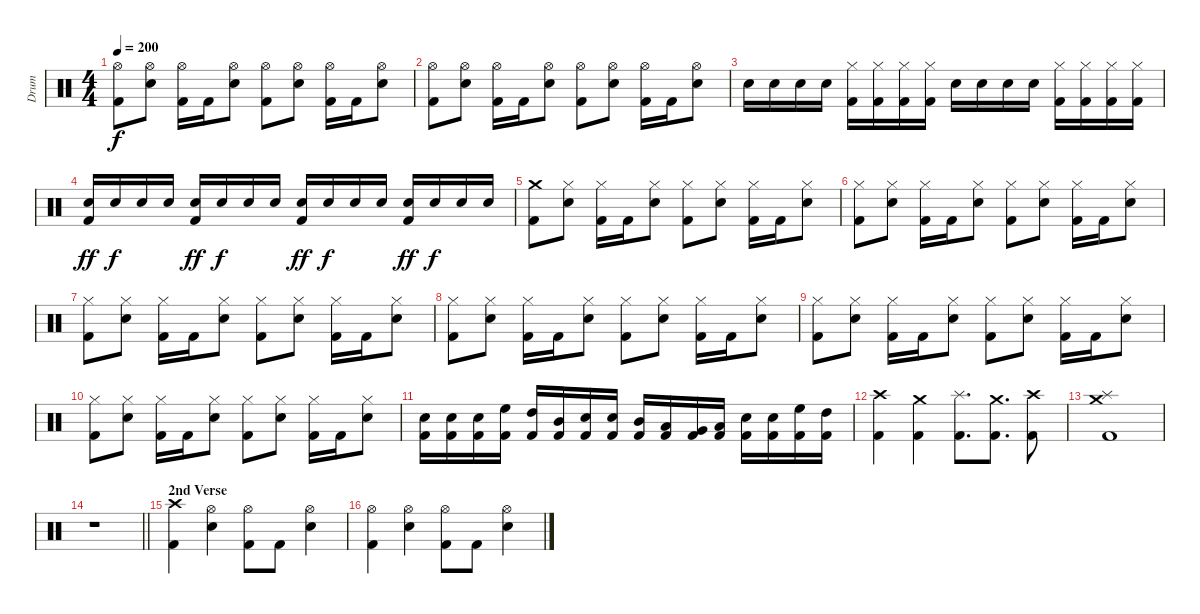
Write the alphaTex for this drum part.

\track ("Drum" "Drum") {instrument percussion}
\staff {score}
\articulation defaults
\ts (4 4)
\tempo 200
\clef neutral
\ks c
("Kick (hit) 2" "Hi-Hat (open)").8{dy f} ("Snare (hit) 2" "Hi-Hat (open)").8 ("Kick (hit) 2" "Hi-Hat (open)").16 "Kick (hit) 2".16 ("Snare (hit) 2" "Hi-Hat (open)").8 ("Kick (hit) 2" "Hi-Hat (open)").8 ("Snare (hit) 2" "Hi-Hat (open)").8 ("Kick (hit) 2" "Hi-Hat (open)").16 "Kick (hit) 2".16 ("Snare (hit) 2" "Hi-Hat (open)").8 |
("Kick (hit) 2" "Hi-Hat (open)").8 ("Snare (hit) 2" "Hi-Hat (open)").8 ("Kick (hit) 2" "Hi-Hat (open)").16 "Kick (hit) 2".16 ("Snare (hit) 2" "Hi-Hat (open)").8 ("Kick (hit) 2" "Hi-Hat (open)").8 ("Snare (hit) 2" "Hi-Hat (open)").8 ("Kick (hit) 2" "Hi-Hat (open)").16 "Kick (hit) 2".16 ("Snare (hit) 2" "Hi-Hat (open)").8 |
"Snare (hit) 2".16 "Snare (hit) 2".16 "Snare (hit) 2".16 "Snare (hit) 2".16 ("Kick (hit) 2" "Hi-Hat (closed)").16 ("Kick (hit) 2" "Hi-Hat (closed)").16 ("Kick (hit) 2" "Hi-Hat (closed)").16 ("Kick (hit) 2" "Hi-Hat (closed)").16 "Snare (hit) 2".16 "Snare (hit) 2".16 "Snare (hit) 2".16 "Snare (hit) 2".16 ("Kick (hit) 2" "Hi-Hat (closed)").16 ("Kick (hit) 2" "Hi-Hat (closed)").16 ("Kick (hit) 2" "Hi-Hat (closed)").16 ("Kick (hit) 2" "Hi-Hat (closed)").16 |
("Kick (hit) 2" "Snare (hit) 2").16{dy ff} "Snare (hit) 2".16{dy f} "Snare (hit) 2".16 "Snare (hit) 2".16 ("Kick (hit) 2" "Snare (hit) 2").16{dy ff} "Snare (hit) 2".16{dy f} "Snare (hit) 2".16 "Snare (hit) 2".16 ("Kick (hit) 2" "Snare (hit) 2").16{dy ff} "Snare (hit) 2".16{dy f} "Snare (hit) 2".16 "Snare (hit) 2".16 ("Kick (hit) 2" "Snare (hit) 2").16{dy ff} "Snare (hit) 2".16{dy f} "Snare (hit) 2".16 "Snare (hit) 2".16 |
("Kick (hit) 2" "Crash medium (hit)").8 ("Snare (hit) 2" "Hi-Hat (closed)").8 ("Kick (hit) 2" "Hi-Hat (closed)").16 "Kick (hit) 2".16 ("Snare (hit) 2" "Hi-Hat (closed)").8 ("Kick (hit) 2" "Hi-Hat (closed)").8 ("Snare (hit) 2" "Hi-Hat (closed)").8 ("Kick (hit) 2" "Hi-Hat (closed)").16 "Kick (hit) 2".16 ("Snare (hit) 2" "Hi-Hat (closed)").8 |
("Kick (hit) 2" "Hi-Hat (closed)").8 ("Snare (hit) 2" "Hi-Hat (closed)").8 ("Kick (hit) 2" "Hi-Hat (closed)").16 "Kick (hit) 2".16 ("Snare (hit) 2" "Hi-Hat (closed)").8 ("Kick (hit) 2" "Hi-Hat (closed)").8 ("Snare (hit) 2" "Hi-Hat (closed)").8 ("Kick (hit) 2" "Hi-Hat (closed)").16 "Kick (hit) 2".16 ("Snare (hit) 2" "Hi-Hat (closed)").8 |
("Kick (hit) 2" "Hi-Hat (closed)").8 ("Snare (hit) 2" "Hi-Hat (closed)").8 ("Kick (hit) 2" "Hi-Hat (closed)").16 "Kick (hit) 2".16 ("Snare (hit) 2" "Hi-Hat (closed)").8 ("Kick (hit) 2" "Hi-Hat (closed)").8 ("Snare (hit) 2" "Hi-Hat (closed)").8 ("Kick (hit) 2" "Hi-Hat (closed)").16 "Kick (hit) 2".16 ("Snare (hit) 2" "Hi-Hat (closed)").8 |
("Kick (hit) 2" "Hi-Hat (closed)").8 ("Snare (hit) 2" "Hi-Hat (closed)").8 ("Kick (hit) 2" "Hi-Hat (closed)").16 "Kick (hit) 2".16 ("Snare (hit) 2" "Hi-Hat (closed)").8 ("Kick (hit) 2" "Hi-Hat (closed)").8 ("Snare (hit) 2" "Hi-Hat (closed)").8 ("Kick (hit) 2" "Hi-Hat (closed)").16 "Kick (hit) 2".16 ("Snare (hit) 2" "Hi-Hat (closed)").8 |
("Kick (hit) 2" "Hi-Hat (closed)").8 ("Snare (hit) 2" "Hi-Hat (closed)").8 ("Kick (hit) 2" "Hi-Hat (closed)").16 "Kick (hit) 2".16 ("Snare (hit) 2" "Hi-Hat (closed)").8 ("Kick (hit) 2" "Hi-Hat (closed)").8 ("Snare (hit) 2" "Hi-Hat (closed)").8 ("Kick (hit) 2" "Hi-Hat (closed)").16 "Kick (hit) 2".16 ("Snare (hit) 2" "Hi-Hat (closed)").8 |
("Kick (hit) 2" "Hi-Hat (closed)").8 ("Snare (hit) 2" "Hi-Hat (closed)").8 ("Kick (hit) 2" "Hi-Hat (closed)").16 "Kick (hit) 2".16 ("Snare (hit) 2" "Hi-Hat (closed)").8 ("Kick (hit) 2" "Hi-Hat (closed)").8 ("Snare (hit) 2" "Hi-Hat (closed)").8 ("Kick (hit) 2" "Hi-Hat (closed)").16 "Kick (hit) 2".16 ("Snare (hit) 2" "Hi-Hat (closed)").8 |
("Kick (hit) 2" "Snare (hit) 2").16 ("Kick (hit) 2" "Snare (hit) 2").16 ("Kick (hit) 2" "Snare (hit) 2").16 ("Kick (hit) 2" "High Floor Tom (hit)").16 ("Kick (hit) 2" "High Tom (hit)").16 ("Kick (hit) 2" "Mid Tom (hit)").16 ("Kick (hit) 2" "Snare (hit) 2").16 ("Kick (hit) 2" "Snare (hit) 2").16 ("Kick (hit) 2" "Mid Tom (hit)").16 ("Kick (hit) 2" "Low Tom (hit)").16 ("Kick (hit) 2" "Very Low Tom (hit)").16 ("Kick (hit) 2" "Low Floor Tom (hit)").16 ("Kick (hit) 2" "Snare (hit) 2").16 ("Kick (hit) 2" "Snare (hit) 2").16 ("Kick (hit) 2" "High Floor Tom (hit)").16 ("Kick (hit) 2" "High Tom (hit)").16 |
("Kick (hit) 2" "Crash high (hit)").4 ("Kick (hit) 2" "Crash medium (hit)").4 ("Kick (hit) 2" "Splash (hit)").8{d} ("Kick (hit) 2" "Crash medium (hit)").8{d} ("Kick (hit) 2" "Crash high (hit)").8 |
("Kick (hit) 2" "Splash (hit)" "Crash medium (hit)").1 |
\barLineRight lightlight
r.1 |
\section ("" "2nd Verse")
("Kick (hit) 2" "Crash high (hit)").4 ("Snare (hit) 2" "Hi-Hat (open)").4 ("Kick (hit) 2" "Hi-Hat (open)").8 "Kick (hit) 2".8 ("Snare (hit) 2" "Hi-Hat (open)").4 |
("Kick (hit) 2" "Hi-Hat (open)").4 ("Snare (hit) 2" "Hi-Hat (open)").4 ("Kick (hit) 2" "Hi-Hat (open)").8 "Kick (hit) 2".8 ("Snare (hit) 2" "Hi-Hat (open)").4
